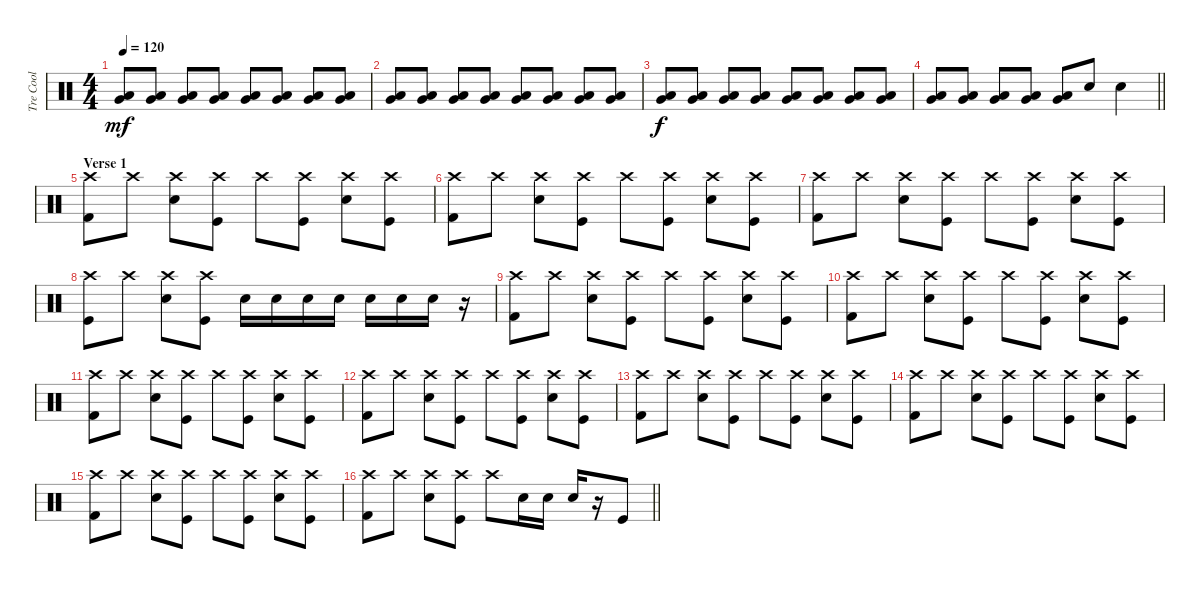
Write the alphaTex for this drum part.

\track ("Tre Cool" "Tre Cool") {instrument percussion}
\staff {score}
\articulation defaults
\ts (4 4)
\tempo 120
\clef neutral
\ks c
("Very Low Tom (hit)" "Low Tom (hit)").8{dy mf} ("Very Low Tom (hit)" "Low Tom (hit)").8 ("Very Low Tom (hit)" "Low Tom (hit)").8 ("Very Low Tom (hit)" "Low Tom (hit)").8 ("Very Low Tom (hit)" "Low Tom (hit)").8 ("Very Low Tom (hit)" "Low Tom (hit)").8 ("Very Low Tom (hit)" "Low Tom (hit)").8 ("Very Low Tom (hit)" "Low Tom (hit)").8 |
("Very Low Tom (hit)" "Low Tom (hit)").8 ("Very Low Tom (hit)" "Low Tom (hit)").8 ("Very Low Tom (hit)" "Low Tom (hit)").8 ("Very Low Tom (hit)" "Low Tom (hit)").8 ("Very Low Tom (hit)" "Low Tom (hit)").8 ("Very Low Tom (hit)" "Low Tom (hit)").8 ("Very Low Tom (hit)" "Low Tom (hit)").8 ("Very Low Tom (hit)" "Low Tom (hit)").8 |
("Very Low Tom (hit)" "Low Tom (hit)").8{dy f} ("Very Low Tom (hit)" "Low Tom (hit)").8 ("Very Low Tom (hit)" "Low Tom (hit)").8 ("Very Low Tom (hit)" "Low Tom (hit)").8 ("Very Low Tom (hit)" "Low Tom (hit)").8 ("Very Low Tom (hit)" "Low Tom (hit)").8 ("Very Low Tom (hit)" "Low Tom (hit)").8 ("Very Low Tom (hit)" "Low Tom (hit)").8 |
\barLineRight lightlight
("Very Low Tom (hit)" "Low Tom (hit)").8 ("Very Low Tom (hit)" "Low Tom (hit)").8 ("Very Low Tom (hit)" "Low Tom (hit)").8 ("Very Low Tom (hit)" "Low Tom (hit)").8 ("Very Low Tom (hit)" "Low Tom (hit)").8 "Snare (hit) 2".8 "Snare (hit) 2".4 |
\section ("" "Verse 1")
("Crash high (hit)" "Kick (hit) 2").8 "Crash high (hit)".8 ("Crash high (hit)" "Snare (hit) 2").8 ("Crash high (hit)" "Kick (hit)").8 "Crash high (hit)".8 ("Crash high (hit)" "Kick (hit)").8 ("Crash high (hit)" "Snare (hit) 2").8 ("Crash high (hit)" "Kick (hit)").8 |
("Crash high (hit)" "Kick (hit) 2").8 "Crash high (hit)".8 ("Crash high (hit)" "Snare (hit) 2").8 ("Crash high (hit)" "Kick (hit)").8 "Crash high (hit)".8 ("Crash high (hit)" "Kick (hit)").8 ("Crash high (hit)" "Snare (hit) 2").8 ("Crash high (hit)" "Kick (hit)").8 |
("Crash high (hit)" "Kick (hit) 2").8 "Crash high (hit)".8 ("Crash high (hit)" "Snare (hit) 2").8 ("Crash high (hit)" "Kick (hit)").8 "Crash high (hit)".8 ("Crash high (hit)" "Kick (hit)").8 ("Crash high (hit)" "Snare (hit) 2").8 ("Crash high (hit)" "Kick (hit)").8 |
("Crash high (hit)" "Kick (hit)").8 "Crash high (hit)".8 ("Crash high (hit)" "Snare (hit) 2").8 ("Crash high (hit)" "Kick (hit)").8 "Snare (hit) 2".16 "Snare (hit) 2".16 "Snare (hit) 2".16 "Snare (hit) 2".16 "Snare (hit) 2".16 "Snare (hit) 2".16 "Snare (hit) 2".16 r.16 |
("Crash high (hit)" "Kick (hit) 2").8 "Crash high (hit)".8 ("Crash high (hit)" "Snare (hit) 2").8 ("Crash high (hit)" "Kick (hit)").8 "Crash high (hit)".8 ("Crash high (hit)" "Kick (hit)").8 ("Crash high (hit)" "Snare (hit) 2").8 ("Crash high (hit)" "Kick (hit)").8 |
("Crash high (hit)" "Kick (hit) 2").8 "Crash high (hit)".8 ("Crash high (hit)" "Snare (hit) 2").8 ("Crash high (hit)" "Kick (hit)").8 "Crash high (hit)".8 ("Crash high (hit)" "Kick (hit)").8 ("Crash high (hit)" "Snare (hit) 2").8 ("Crash high (hit)" "Kick (hit)").8 |
("Crash high (hit)" "Kick (hit) 2").8 "Crash high (hit)".8 ("Crash high (hit)" "Snare (hit) 2").8 ("Crash high (hit)" "Kick (hit)").8 "Crash high (hit)".8 ("Crash high (hit)" "Kick (hit)").8 ("Crash high (hit)" "Snare (hit) 2").8 ("Crash high (hit)" "Kick (hit)").8 |
("Crash high (hit)" "Kick (hit) 2").8 "Crash high (hit)".8 ("Crash high (hit)" "Snare (hit) 2").8 ("Crash high (hit)" "Kick (hit)").8 "Crash high (hit)".8 ("Crash high (hit)" "Kick (hit)").8 ("Crash high (hit)" "Snare (hit) 2").8 ("Crash high (hit)" "Kick (hit)").8 |
("Crash high (hit)" "Kick (hit) 2").8 "Crash high (hit)".8 ("Crash high (hit)" "Snare (hit) 2").8 ("Crash high (hit)" "Kick (hit)").8 "Crash high (hit)".8 ("Crash high (hit)" "Kick (hit)").8 ("Crash high (hit)" "Snare (hit) 2").8 ("Crash high (hit)" "Kick (hit)").8 |
("Crash high (hit)" "Kick (hit) 2").8 "Crash high (hit)".8 ("Crash high (hit)" "Snare (hit) 2").8 ("Crash high (hit)" "Kick (hit)").8 "Crash high (hit)".8 ("Crash high (hit)" "Kick (hit)").8 ("Crash high (hit)" "Snare (hit) 2").8 ("Crash high (hit)" "Kick (hit)").8 |
("Crash high (hit)" "Kick (hit) 2").8 "Crash high (hit)".8 ("Crash high (hit)" "Snare (hit) 2").8 ("Crash high (hit)" "Kick (hit)").8 "Crash high (hit)".8 ("Crash high (hit)" "Kick (hit)").8 ("Crash high (hit)" "Snare (hit) 2").8 ("Crash high (hit)" "Kick (hit)").8 |
\barLineRight lightlight
("Crash high (hit)" "Kick (hit) 2").8 "Crash high (hit)".8 ("Crash high (hit)" "Snare (hit) 2").8 ("Crash high (hit)" "Kick (hit)").8 "Crash high (hit)".8 "Snare (hit) 2".16 "Snare (hit) 2".16 "Snare (hit) 2".16 r.16 "Kick (hit)".8
